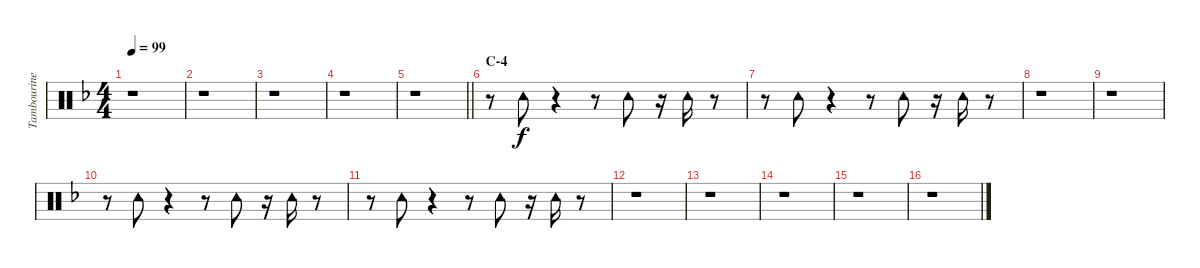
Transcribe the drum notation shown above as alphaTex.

\track ("Tambourine" "Tambourine") {instrument percussion}
\staff {score}
\articulation defaults
\ts (4 4)
\tempo 99
\clef neutral
\ks f
r.1{dy f} |
r.1 |
r.1 |
r.1 |
\barLineRight lightlight
r.1 |
\section ("" "C-4")
r.8 "Tambourine (hit)".8 r.4 r.8 "Tambourine (hit)".8 r.16 "Tambourine (hit)".16 r.8 |
r.8 "Tambourine (hit)".8 r.4 r.8 "Tambourine (hit)".8 r.16 "Tambourine (hit)".16 r.8 |
r.1 |
r.1 |
r.8 "Tambourine (hit)".8 r.4 r.8 "Tambourine (hit)".8 r.16 "Tambourine (hit)".16 r.8 |
r.8 "Tambourine (hit)".8 r.4 r.8 "Tambourine (hit)".8 r.16 "Tambourine (hit)".16 r.8 |
r.1 |
r.1 |
r.1 |
r.1 |
r.1
